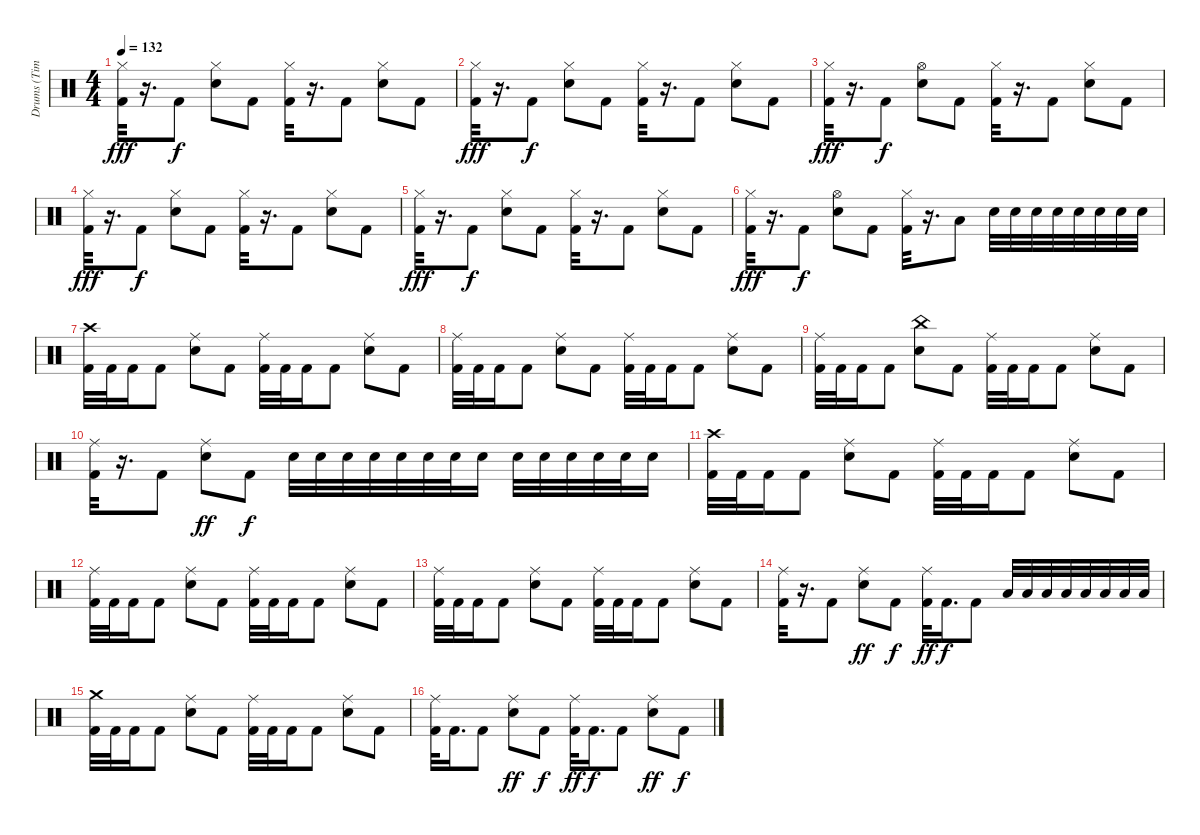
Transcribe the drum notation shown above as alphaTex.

\track ("Drums (Tim Alexander)" "Drums (Tim") {instrument percussion}
\staff {score}
\articulation defaults
\ts (4 4)
\tempo 132
\clef neutral
\ks c
("Hi-Hat (closed)" "Kick (hit) 2").32{dy fff} r.16{d} "Kick (hit) 2".8{dy f} ("Hi-Hat (closed)" "Snare (hit) 2").8 "Kick (hit) 2".8 ("Hi-Hat (closed)" "Kick (hit) 2").32 r.16{d} "Kick (hit) 2".8 ("Hi-Hat (closed)" "Snare (hit) 2").8 "Kick (hit) 2".8 |
("Hi-Hat (closed)" "Kick (hit) 2").32{dy fff} r.16{d} "Kick (hit) 2".8{dy f} ("Hi-Hat (closed)" "Snare (hit) 2").8 "Kick (hit) 2".8 ("Hi-Hat (closed)" "Kick (hit) 2").32 r.16{d} "Kick (hit) 2".8 ("Hi-Hat (closed)" "Snare (hit) 2").8 "Kick (hit) 2".8 |
("Hi-Hat (closed)" "Kick (hit) 2").32{dy fff} r.16{d} "Kick (hit) 2".8{dy f} ("Hi-Hat (open)" "Snare (hit) 2").8 "Kick (hit) 2".8 ("Hi-Hat (closed)" "Kick (hit) 2").32 r.16{d} "Kick (hit) 2".8 ("Hi-Hat (closed)" "Snare (hit) 2").8 "Kick (hit) 2".8 |
("Hi-Hat (closed)" "Kick (hit) 2").32{dy fff} r.16{d} "Kick (hit) 2".8{dy f} ("Hi-Hat (closed)" "Snare (hit) 2").8 "Kick (hit) 2".8 ("Hi-Hat (closed)" "Kick (hit) 2").32 r.16{d} "Kick (hit) 2".8 ("Hi-Hat (closed)" "Snare (hit) 2").8 "Kick (hit) 2".8 |
("Hi-Hat (closed)" "Kick (hit) 2").32{dy fff} r.16{d} "Kick (hit) 2".8{dy f} ("Hi-Hat (closed)" "Snare (hit) 2").8 "Kick (hit) 2".8 ("Hi-Hat (closed)" "Kick (hit) 2").32 r.16{d} "Kick (hit) 2".8 ("Hi-Hat (closed)" "Snare (hit) 2").8 "Kick (hit) 2".8 |
("Hi-Hat (closed)" "Kick (hit) 2").32{dy fff} r.16{d} "Kick (hit) 2".8{dy f} ("Hi-Hat (open)" "Snare (hit) 2").8 "Kick (hit) 2".8 ("Hi-Hat (closed)" "Kick (hit) 2").32 r.16{d} "Low Tom (hit)".8 "Snare (hit) 2".32 "Snare (hit) 2".32 "Snare (hit) 2".32 "Snare (hit) 2".32 "Snare (hit) 2".32 "Snare (hit) 2".32 "Snare (hit) 2".32 "Snare (hit) 2".32 |
("Crash high (hit)" "Kick (hit) 2").32 "Kick (hit) 2".32 "Kick (hit) 2".16 "Kick (hit) 2".8 ("Ride (middle)" "Snare (hit) 2").8 "Kick (hit) 2".8 ("Ride (middle)" "Kick (hit) 2").32 "Kick (hit) 2".32 "Kick (hit) 2".16 "Kick (hit) 2".8 ("Ride (middle)" "Snare (hit) 2").8 "Kick (hit) 2".8 |
("Ride (middle)" "Kick (hit) 2").32 "Kick (hit) 2".32 "Kick (hit) 2".16 "Kick (hit) 2".8 ("Ride (middle)" "Snare (hit) 2").8 "Kick (hit) 2".8 ("Ride (middle)" "Kick (hit) 2").32 "Kick (hit) 2".32 "Kick (hit) 2".16 "Kick (hit) 2".8 ("Ride (middle)" "Snare (hit) 2").8 "Kick (hit) 2".8 |
("Ride (middle)" "Kick (hit) 2").32 "Kick (hit) 2".32 "Kick (hit) 2".16 "Kick (hit) 2".8 ("China (hit)" "Snare (hit) 2").8 "Kick (hit) 2".8 ("Ride (middle)" "Kick (hit) 2").32 "Kick (hit) 2".32 "Kick (hit) 2".16 "Kick (hit) 2".8 ("Ride (middle)" "Snare (hit) 2").8 "Kick (hit) 2".8 |
("Ride (middle)" "Kick (hit) 2").32 r.16{d} "Kick (hit) 2".8 ("Ride (middle)" "Snare (hit) 2").8{dy ff} "Kick (hit) 2".8{dy f} "Snare (hit) 2".32 "Snare (hit) 2".32 "Snare (hit) 2".32 "Snare (hit) 2".32 "Snare (hit) 2".32 "Snare (hit) 2".32 "Snare (hit) 2".32 "Snare (hit) 2".16 "Snare (hit) 2".32 "Snare (hit) 2".32 "Snare (hit) 2".32 "Snare (hit) 2".32 "Snare (hit) 2".32 "Snare (hit) 2".16 |
("Crash high (hit)" "Kick (hit) 2").32 "Kick (hit) 2".32 "Kick (hit) 2".16 "Kick (hit) 2".8 ("Ride (middle)" "Snare (hit) 2").8 "Kick (hit) 2".8 ("Ride (middle)" "Kick (hit) 2").32 "Kick (hit) 2".32 "Kick (hit) 2".16 "Kick (hit) 2".8 ("Ride (middle)" "Snare (hit) 2").8 "Kick (hit) 2".8 |
("Ride (middle)" "Kick (hit) 2").32 "Kick (hit) 2".32 "Kick (hit) 2".16 "Kick (hit) 2".8 ("Ride (middle)" "Snare (hit) 2").8 "Kick (hit) 2".8 ("Ride (middle)" "Kick (hit) 2").32 "Kick (hit) 2".32 "Kick (hit) 2".16 "Kick (hit) 2".8 ("Ride (middle)" "Snare (hit) 2").8 "Kick (hit) 2".8 |
("Ride (middle)" "Kick (hit) 2").32 "Kick (hit) 2".32 "Kick (hit) 2".16 "Kick (hit) 2".8 ("Ride (middle)" "Snare (hit) 2").8 "Kick (hit) 2".8 ("Ride (middle)" "Kick (hit) 2").32 "Kick (hit) 2".32 "Kick (hit) 2".16 "Kick (hit) 2".8 ("Ride (middle)" "Snare (hit) 2").8 "Kick (hit) 2".8 |
("Ride (middle)" "Kick (hit) 2").32 r.16{d} "Kick (hit) 2".8 ("Ride (middle)" "Snare (hit) 2").8{dy ff} "Kick (hit) 2".8{dy f} ("Ride (middle)" "Kick (hit) 2").32{dy ff} "Kick (hit) 2".16{d dy f} "Kick (hit) 2".8 "Low Tom (hit)".32 "Low Tom (hit)".32 "Low Tom (hit)".32 "Low Tom (hit)".32 "Low Tom (hit)".32 "Low Tom (hit)".32 "Low Tom (hit)".32 "Low Tom (hit)".32 |
("Crash medium (hit)" "Kick (hit) 2").32 "Kick (hit) 2".32 "Kick (hit) 2".16 "Kick (hit) 2".8 ("Ride (middle)" "Snare (hit) 2").8 "Kick (hit) 2".8 ("Ride (middle)" "Kick (hit) 2").32 "Kick (hit) 2".32 "Kick (hit) 2".16 "Kick (hit) 2".8 ("Ride (middle)" "Snare (hit) 2").8 "Kick (hit) 2".8 |
("Ride (middle)" "Kick (hit) 2").32 "Kick (hit) 2".16{d} "Kick (hit) 2".8 ("Ride (middle)" "Snare (hit) 2").8{dy ff} "Kick (hit) 2".8{dy f} ("Ride (middle)" "Kick (hit) 2").32{dy ff} "Kick (hit) 2".16{d dy f} "Kick (hit) 2".8 ("Ride (middle)" "Snare (hit) 2").8{dy ff} "Kick (hit) 2".8{dy f}
